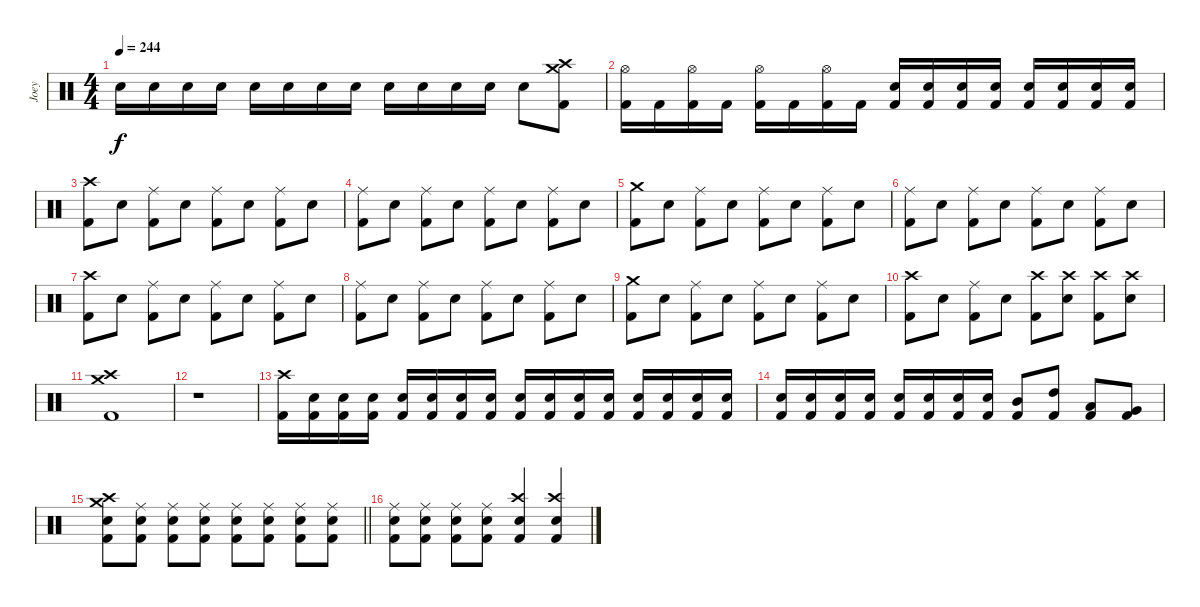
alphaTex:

\track ("Joey" "Joey") {instrument percussion}
\staff {score}
\articulation defaults
\ts (4 4)
\tempo 244
\clef neutral
\ks c "Snare (hit) 2".16{dy f} "Snare (hit) 2".16 "Snare (hit) 2".16 "Snare (hit) 2".16 "Snare (hit) 2".16 "Snare (hit) 2".16 "Snare (hit) 2".16 "Snare (hit) 2".16 "Snare (hit) 2".16 "Snare (hit) 2".16 "Snare (hit) 2".16 "Snare (hit) 2".16 "Snare (hit) 2".8
("Crash medium (hit)" "Crash high (hit)" "Kick (hit) 2").8 |
("Hi-Hat (open)" "Kick (hit) 2").16 "Kick (hit) 2".16 ("Hi-Hat (open)" "Kick (hit) 2").16 "Kick (hit) 2".16 ("Hi-Hat (open)" "Kick (hit) 2").16 "Kick (hit) 2".16 ("Hi-Hat (open)" "Kick (hit) 2").16 "Kick (hit) 2".16 ("Snare (hit) 2" "Kick (hit) 2").16 ("Snare (hit) 2" "Kick (hit) 2").16 ("Snare (hit) 2" "Kick (hit) 2").16 ("Snare (hit) 2" "Kick (hit) 2").16 ("Snare (hit) 2" "Kick (hit) 2").16 ("Snare (hit) 2" "Kick (hit) 2").16 ("Snare (hit) 2" "Kick (hit) 2").16 ("Snare (hit) 2" "Kick (hit) 2").16 |
("Crash high (hit)" "Kick (hit) 2").8 "Snare (hit) 2".8 ("Ride (middle)" "Kick (hit) 2").8 "Snare (hit) 2".8 ("Ride (middle)" "Kick (hit) 2").8 "Snare (hit) 2".8 ("Ride (middle)" "Kick (hit) 2").8 "Snare (hit) 2".8 |
("Ride (middle)" "Kick (hit) 2").8 "Snare (hit) 2".8 ("Ride (middle)" "Kick (hit) 2").8 "Snare (hit) 2".8 ("Ride (middle)" "Kick (hit) 2").8 "Snare (hit) 2".8 ("Ride (middle)" "Kick (hit) 2").8 "Snare (hit) 2".8 |
("Crash medium (hit)" "Kick (hit) 2").8 "Snare (hit) 2".8 ("Ride (middle)" "Kick (hit) 2").8 "Snare (hit) 2".8 ("Ride (middle)" "Kick (hit) 2").8 "Snare (hit) 2".8 ("Ride (middle)" "Kick (hit) 2").8 "Snare (hit) 2".8 |
("Ride (middle)" "Kick (hit) 2").8 "Snare (hit) 2".8 ("Ride (middle)" "Kick (hit) 2").8 "Snare (hit) 2".8 ("Ride (middle)" "Kick (hit) 2").8 "Snare (hit) 2".8 ("Ride (middle)" "Kick (hit) 2").8 "Snare (hit) 2".8 |
("Crash high (hit)" "Kick (hit) 2").8 "Snare (hit) 2".8 ("Ride (middle)" "Kick (hit) 2").8 "Snare (hit) 2".8 ("Ride (middle)" "Kick (hit) 2").8 "Snare (hit) 2".8 ("Ride (middle)" "Kick (hit) 2").8 "Snare (hit) 2".8 |
("Ride (middle)" "Kick (hit) 2").8 "Snare (hit) 2".8 ("Ride (middle)" "Kick (hit) 2").8 "Snare (hit) 2".8 ("Ride (middle)" "Kick (hit) 2").8 "Snare (hit) 2".8 ("Ride (middle)" "Kick (hit) 2").8 "Snare (hit) 2".8 |
("Crash medium (hit)" "Kick (hit) 2").8 "Snare (hit) 2".8 ("Ride (middle)" "Kick (hit) 2").8 "Snare (hit) 2".8 ("Ride (middle)" "Kick (hit) 2").8 "Snare (hit) 2".8 ("Ride (middle)" "Kick (hit) 2").8 "Snare (hit) 2".8 |
("Crash high (hit)" "Kick (hit) 2").8 "Snare (hit) 2".8 ("Ride (middle)" "Kick (hit) 2").8 "Snare (hit) 2".8 ("Crash high (hit)" "Kick (hit) 2").8 ("Crash high (hit)" "Snare (hit) 2").8 ("Crash high (hit)" "Kick (hit) 2").8 ("Crash high (hit)" "Snare (hit) 2").8 |
("Crash high (hit)" "Crash medium (hit)" "Kick (hit) 2").1 |
r.1 |
("Crash high (hit)" "Kick (hit) 2").16 ("Snare (hit) 2" "Kick (hit) 2").16 ("Snare (hit) 2" "Kick (hit) 2").16 ("Snare (hit) 2" "Kick (hit) 2").16 ("Snare (hit) 2" "Kick (hit) 2").16 ("Snare (hit) 2" "Kick (hit) 2").16 ("Snare (hit) 2" "Kick (hit) 2").16 ("Snare (hit) 2" "Kick (hit) 2").16 ("Snare (hit) 2" "Kick (hit) 2").16 ("Snare (hit) 2" "Kick (hit) 2").16 ("Snare (hit) 2" "Kick (hit) 2").16 ("Snare (hit) 2" "Kick (hit) 2").16 ("Snare (hit) 2" "Kick (hit) 2").16 ("Snare (hit) 2" "Kick (hit) 2").16 ("Snare (hit) 2" "Kick (hit) 2").16 ("Snare (hit) 2" "Kick (hit) 2").16 |
("Snare (hit) 2" "Kick (hit) 2").16 ("Snare (hit) 2" "Kick (hit) 2").16 ("Snare (hit) 2" "Kick (hit) 2").16 ("Snare (hit) 2" "Kick (hit) 2").16 ("Snare (hit) 2" "Kick (hit) 2").16 ("Snare (hit) 2" "Kick (hit) 2").16 ("Snare (hit) 2" "Kick (hit) 2").16 ("Snare (hit) 2" "Kick (hit) 2").16 ("Mid Tom (hit)" "Kick (hit) 2").8 ("High Tom (hit)" "Kick (hit) 2").8 ("Low Tom (hit)" "Kick (hit) 2").8 ("Very Low Tom (hit)" "Kick (hit) 2").8 |
\barLineRight lightlight
("Crash high (hit)" "Crash medium (hit)" "Snare (hit) 2" "Kick (hit) 2").8 ("Ride (middle)" "Snare (hit) 2" "Kick (hit) 2").8 ("Ride (middle)" "Snare (hit) 2" "Kick (hit) 2").8 ("Ride (middle)" "Snare (hit) 2" "Kick (hit) 2").8 ("Ride (middle)" "Snare (hit) 2" "Kick (hit) 2").8 ("Ride (middle)" "Snare (hit) 2" "Kick (hit) 2").8 ("Ride (middle)" "Snare (hit) 2" "Kick (hit) 2").8 ("Ride (middle)" "Snare (hit) 2" "Kick (hit) 2").8 |
("Ride (middle)" "Snare (hit) 2" "Kick (hit) 2").8 ("Ride (middle)" "Snare (hit) 2" "Kick (hit) 2").8 ("Ride (middle)" "Snare (hit) 2" "Kick (hit) 2").8 ("Ride (middle)" "Snare (hit) 2" "Kick (hit) 2").8 ("Crash high (hit)" "Snare (hit) 2" "Kick (hit) 2").4 ("Crash high (hit)" "Snare (hit) 2" "Kick (hit) 2").4
